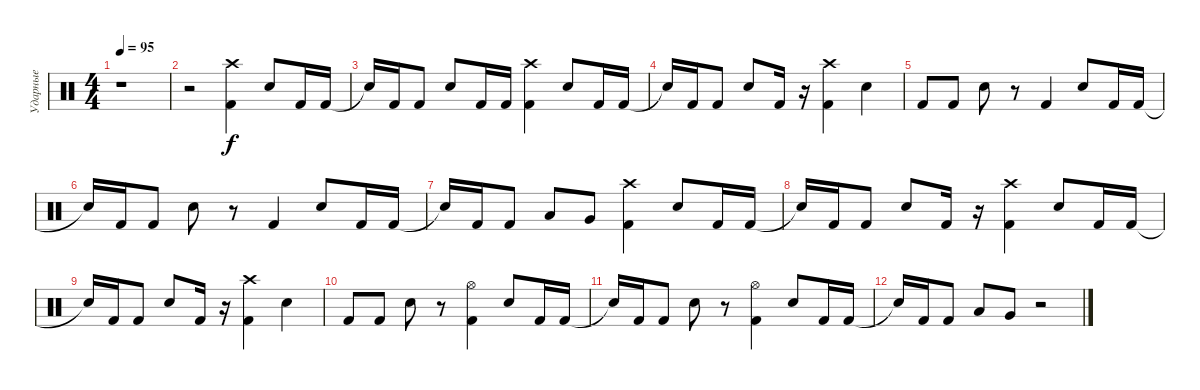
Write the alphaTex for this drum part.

\track ("Ударные" "Ударные") {instrument percussion}
\staff {score}
\articulation defaults
\ts (4 4)
\tempo 95
\clef neutral
\ks c
r.1{dy f} |
r.2 ("Crash high (hit)" "Kick (hit) 2").4 "Snare (hit) 2".8 "Kick (hit) 2".16 "Kick (hit) 2".16 |
"Snare (hit)"{t}.16 "Kick (hit) 2".16 "Kick (hit) 2".8 "Snare (hit) 2".8 "Kick (hit) 2".16 "Kick (hit) 2".16 ("Crash high (hit)" "Kick (hit) 2").4 "Snare (hit) 2".8 "Kick (hit) 2".16 "Kick (hit) 2".16 |
"Snare (hit)"{t}.16 "Kick (hit) 2".16 "Kick (hit) 2".8 "Snare (hit) 2".8 "Kick (hit) 2".16 r.16 ("Crash high (hit)" "Kick (hit) 2").4 "Snare (hit) 2".4 |
"Kick (hit) 2".8 "Kick (hit) 2".8 "Snare (hit) 2".8 r.8 "Kick (hit) 2".4 "Snare (hit) 2".8 "Kick (hit) 2".16 "Kick (hit) 2".16 |
"Snare (hit)"{t}.16 "Kick (hit) 2".16 "Kick (hit) 2".8 "Snare (hit) 2".8 r.8 "Kick (hit) 2".4 "Snare (hit) 2".8 "Kick (hit) 2".16 "Kick (hit) 2".16 |
"Snare (hit)"{t}.16 "Kick (hit) 2".16 "Kick (hit) 2".8 "Low Floor Tom (hit)".8 "Very Low Tom (hit)".8 ("Crash high (hit)" "Kick (hit) 2").4 "Snare (hit) 2".8 "Kick (hit) 2".16 "Kick (hit) 2".16 |
"Snare (hit)"{t}.16 "Kick (hit) 2".16 "Kick (hit) 2".8 "Snare (hit) 2".8 "Kick (hit) 2".16 r.16 ("Crash high (hit)" "Kick (hit) 2").4 "Snare (hit) 2".8 "Kick (hit) 2".16 "Kick (hit) 2".16 |
"Snare (hit)"{t}.16 "Kick (hit) 2".16 "Kick (hit) 2".8 "Snare (hit) 2".8 "Kick (hit) 2".16 r.16 ("Crash high (hit)" "Kick (hit) 2").4 "Snare (hit) 2".4 |
"Kick (hit) 2".8 "Kick (hit) 2".8 "Snare (hit) 2".8 r.8 ("Hi-Hat (open)" "Kick (hit) 2").4 "Snare (hit) 2".8 "Kick (hit) 2".16 "Kick (hit) 2".16 |
"Snare (hit)"{t}.16 "Kick (hit) 2".16 "Kick (hit) 2".8 "Snare (hit) 2".8 r.8 ("Hi-Hat (open)" "Kick (hit) 2").4 "Snare (hit) 2".8 "Kick (hit) 2".16 "Kick (hit) 2".16 |
"Snare (hit)"{t}.16 "Kick (hit) 2".16 "Kick (hit) 2".8 "Low Floor Tom (hit)".8 "Very Low Tom (hit)".8 r.2
